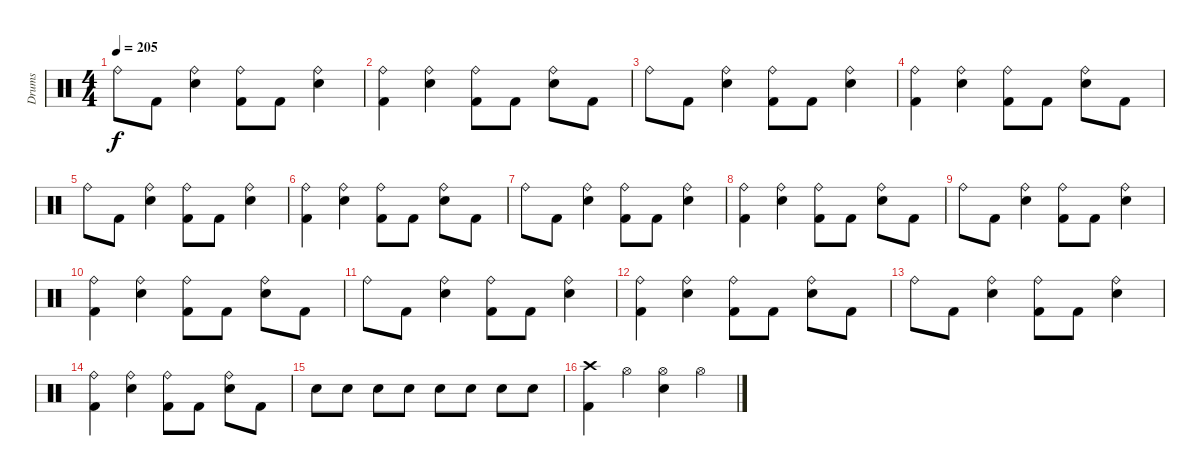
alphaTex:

\track ("Drums" "Drums") {instrument percussion}
\staff {score}
\articulation defaults
\ts (4 4)
\tempo 205
\clef neutral
\ks c "Ride (bell)".8{dy f} "Kick (hit) 2".8
("Ride (bell)" "Snare (hit) 2").4 ("Ride (bell)" "Kick (hit) 2").8 "Kick (hit) 2".8 ("Ride (bell)" "Snare (hit) 2").4 |
("Ride (bell)" "Kick (hit) 2").4 ("Ride (bell)" "Snare (hit) 2").4 ("Ride (bell)" "Kick (hit) 2").8 "Kick (hit) 2".8 ("Ride (bell)" "Snare (hit) 2").8 "Kick (hit) 2".8 |
"Ride (bell)".8 "Kick (hit) 2".8 ("Ride (bell)" "Snare (hit) 2").4 ("Ride (bell)" "Kick (hit) 2").8 "Kick (hit) 2".8 ("Ride (bell)" "Snare (hit) 2").4 |
("Ride (bell)" "Kick (hit) 2").4 ("Ride (bell)" "Snare (hit) 2").4 ("Ride (bell)" "Kick (hit) 2").8 "Kick (hit) 2".8 ("Ride (bell)" "Snare (hit) 2").8 "Kick (hit) 2".8 |
"Ride (bell)".8 "Kick (hit) 2".8 ("Ride (bell)" "Snare (hit) 2").4 ("Ride (bell)" "Kick (hit) 2").8 "Kick (hit) 2".8 ("Ride (bell)" "Snare (hit) 2").4 |
("Ride (bell)" "Kick (hit) 2").4 ("Ride (bell)" "Snare (hit) 2").4 ("Ride (bell)" "Kick (hit) 2").8 "Kick (hit) 2".8 ("Ride (bell)" "Snare (hit) 2").8 "Kick (hit) 2".8 |
"Ride (bell)".8 "Kick (hit) 2".8 ("Ride (bell)" "Snare (hit) 2").4 ("Ride (bell)" "Kick (hit) 2").8 "Kick (hit) 2".8 ("Ride (bell)" "Snare (hit) 2").4 |
("Ride (bell)" "Kick (hit) 2").4 ("Ride (bell)" "Snare (hit) 2").4 ("Ride (bell)" "Kick (hit) 2").8 "Kick (hit) 2".8 ("Ride (bell)" "Snare (hit) 2").8 "Kick (hit) 2".8 |
"Ride (bell)".8 "Kick (hit) 2".8 ("Ride (bell)" "Snare (hit) 2").4 ("Ride (bell)" "Kick (hit) 2").8 "Kick (hit) 2".8 ("Ride (bell)" "Snare (hit) 2").4 |
("Ride (bell)" "Kick (hit) 2").4 ("Ride (bell)" "Snare (hit) 2").4 ("Ride (bell)" "Kick (hit) 2").8 "Kick (hit) 2".8 ("Ride (bell)" "Snare (hit) 2").8 "Kick (hit) 2".8 |
"Ride (bell)".8 "Kick (hit) 2".8 ("Ride (bell)" "Snare (hit) 2").4 ("Ride (bell)" "Kick (hit) 2").8 "Kick (hit) 2".8 ("Ride (bell)" "Snare (hit) 2").4 |
("Ride (bell)" "Kick (hit) 2").4 ("Ride (bell)" "Snare (hit) 2").4 ("Ride (bell)" "Kick (hit) 2").8 "Kick (hit) 2".8 ("Ride (bell)" "Snare (hit) 2").8 "Kick (hit) 2".8 |
"Ride (bell)".8 "Kick (hit) 2".8 ("Ride (bell)" "Snare (hit) 2").4 ("Ride (bell)" "Kick (hit) 2").8 "Kick (hit) 2".8 ("Ride (bell)" "Snare (hit) 2").4 |
("Ride (bell)" "Kick (hit) 2").4 ("Ride (bell)" "Snare (hit) 2").4 ("Ride (bell)" "Kick (hit) 2").8 "Kick (hit) 2".8 ("Ride (bell)" "Snare (hit) 2").8 "Kick (hit) 2".8 |
"Snare (hit) 2".8 "Snare (hit) 2".8 "Snare (hit) 2".8 "Snare (hit) 2".8 "Snare (hit) 2".8 "Snare (hit) 2".8 "Snare (hit) 2".8 "Snare (hit) 2".8 |
("Crash high (hit)" "Kick (hit) 2").4 "Hi-Hat (open)".4 ("Hi-Hat (open)" "Snare (hit) 2").4 "Hi-Hat (open)".4
